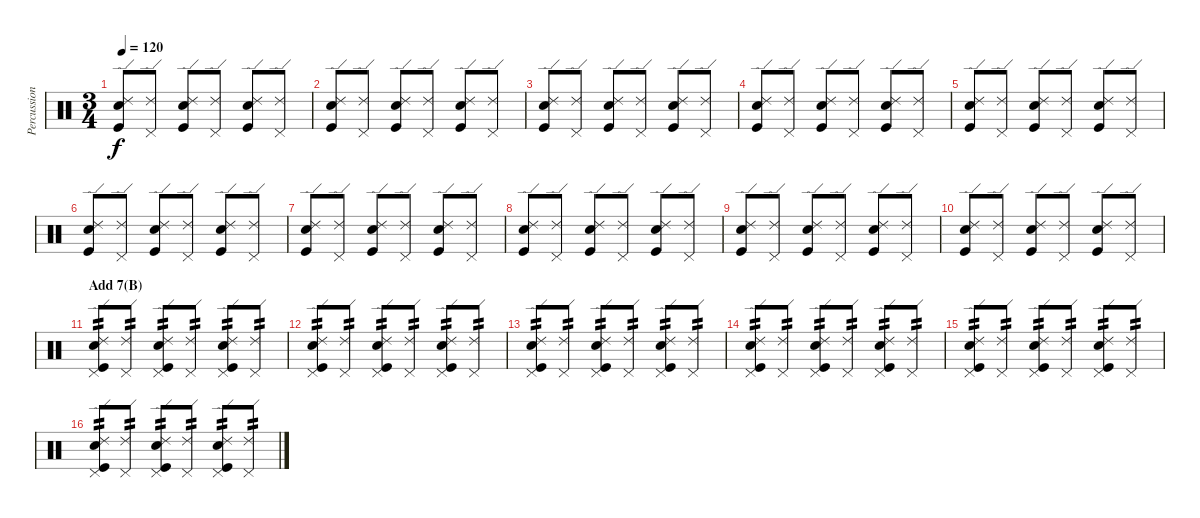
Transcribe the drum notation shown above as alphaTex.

\track ("Percussion" "Percussion") {instrument percussion}
\staff {score}
\articulation defaults
\ts (3 4)
\tempo 120
\clef neutral
\ks c
("Kick (hit)" "Electric Snare (hit)" "Ride (edge) 2").8{dy f} ("Pedal Hi-Hat (hit)" "Ride (edge) 2").8 ("Kick (hit)" "Electric Snare (hit)" "Ride (edge) 2").8 ("Pedal Hi-Hat (hit)" "Ride (edge) 2").8 ("Kick (hit)" "Electric Snare (hit)" "Ride (edge) 2").8 ("Pedal Hi-Hat (hit)" "Ride (edge) 2").8 |
("Kick (hit)" "Electric Snare (hit)" "Ride (edge) 2").8 ("Pedal Hi-Hat (hit)" "Ride (edge) 2").8 ("Kick (hit)" "Electric Snare (hit)" "Ride (edge) 2").8 ("Pedal Hi-Hat (hit)" "Ride (edge) 2").8 ("Kick (hit)" "Electric Snare (hit)" "Ride (edge) 2").8 ("Pedal Hi-Hat (hit)" "Ride (edge) 2").8 |
("Kick (hit)" "Electric Snare (hit)" "Ride (edge) 2").8 ("Pedal Hi-Hat (hit)" "Ride (edge) 2").8 ("Kick (hit)" "Electric Snare (hit)" "Ride (edge) 2").8 ("Pedal Hi-Hat (hit)" "Ride (edge) 2").8 ("Kick (hit)" "Electric Snare (hit)" "Ride (edge) 2").8 ("Pedal Hi-Hat (hit)" "Ride (edge) 2").8 |
("Kick (hit)" "Electric Snare (hit)" "Ride (edge) 2").8 ("Pedal Hi-Hat (hit)" "Ride (edge) 2").8 ("Kick (hit)" "Electric Snare (hit)" "Ride (edge) 2").8 ("Pedal Hi-Hat (hit)" "Ride (edge) 2").8 ("Kick (hit)" "Electric Snare (hit)" "Ride (edge) 2").8 ("Pedal Hi-Hat (hit)" "Ride (edge) 2").8 |
("Kick (hit)" "Electric Snare (hit)" "Ride (edge) 2").8 ("Pedal Hi-Hat (hit)" "Ride (edge) 2").8 ("Kick (hit)" "Electric Snare (hit)" "Ride (edge) 2").8 ("Pedal Hi-Hat (hit)" "Ride (edge) 2").8 ("Kick (hit)" "Electric Snare (hit)" "Ride (edge) 2").8 ("Pedal Hi-Hat (hit)" "Ride (edge) 2").8 |
("Kick (hit)" "Electric Snare (hit)" "Ride (edge) 2").8 ("Pedal Hi-Hat (hit)" "Ride (edge) 2").8 ("Kick (hit)" "Electric Snare (hit)" "Ride (edge) 2").8 ("Pedal Hi-Hat (hit)" "Ride (edge) 2").8 ("Kick (hit)" "Electric Snare (hit)" "Ride (edge) 2").8 ("Pedal Hi-Hat (hit)" "Ride (edge) 2").8 |
("Kick (hit)" "Electric Snare (hit)" "Ride (edge) 2").8 ("Pedal Hi-Hat (hit)" "Ride (edge) 2").8 ("Kick (hit)" "Electric Snare (hit)" "Ride (edge) 2").8 ("Pedal Hi-Hat (hit)" "Ride (edge) 2").8 ("Kick (hit)" "Electric Snare (hit)" "Ride (edge) 2").8 ("Pedal Hi-Hat (hit)" "Ride (edge) 2").8 |
("Kick (hit)" "Electric Snare (hit)" "Ride (edge) 2").8 ("Pedal Hi-Hat (hit)" "Ride (edge) 2").8 ("Kick (hit)" "Electric Snare (hit)" "Ride (edge) 2").8 ("Pedal Hi-Hat (hit)" "Ride (edge) 2").8 ("Kick (hit)" "Electric Snare (hit)" "Ride (edge) 2").8 ("Pedal Hi-Hat (hit)" "Ride (edge) 2").8 |
("Kick (hit)" "Electric Snare (hit)" "Ride (edge) 2").8 ("Pedal Hi-Hat (hit)" "Ride (edge) 2").8 ("Kick (hit)" "Electric Snare (hit)" "Ride (edge) 2").8 ("Pedal Hi-Hat (hit)" "Ride (edge) 2").8 ("Kick (hit)" "Electric Snare (hit)" "Ride (edge) 2").8 ("Pedal Hi-Hat (hit)" "Ride (edge) 2").8 |
("Kick (hit)" "Electric Snare (hit)" "Ride (edge) 2").8 ("Pedal Hi-Hat (hit)" "Ride (edge) 2").8 ("Kick (hit)" "Electric Snare (hit)" "Ride (edge) 2").8 ("Pedal Hi-Hat (hit)" "Ride (edge) 2").8 ("Kick (hit)" "Electric Snare (hit)" "Ride (edge) 2").8 ("Pedal Hi-Hat (hit)" "Ride (edge) 2").8 |
\section ("" "Add 7(B)")
("Pedal Hi-Hat (hit)" "Kick (hit)" "Electric Snare (hit)" "Ride (edge) 2").8{tp 2} ("Pedal Hi-Hat (hit)" "Ride (edge) 2").8{tp 2} ("Pedal Hi-Hat (hit)" "Kick (hit)" "Electric Snare (hit)" "Ride (edge) 2").8{tp 2} ("Pedal Hi-Hat (hit)" "Ride (edge) 2").8{tp 2} ("Pedal Hi-Hat (hit)" "Kick (hit)" "Electric Snare (hit)" "Ride (edge) 2").8{tp 2} ("Pedal Hi-Hat (hit)" "Ride (edge) 2").8{tp 2} |
("Pedal Hi-Hat (hit)" "Kick (hit)" "Electric Snare (hit)" "Ride (edge) 2").8{tp 2} ("Pedal Hi-Hat (hit)" "Ride (edge) 2").8{tp 2} ("Pedal Hi-Hat (hit)" "Kick (hit)" "Electric Snare (hit)" "Ride (edge) 2").8{tp 2} ("Pedal Hi-Hat (hit)" "Ride (edge) 2").8{tp 2} ("Pedal Hi-Hat (hit)" "Kick (hit)" "Electric Snare (hit)" "Ride (edge) 2").8{tp 2} ("Pedal Hi-Hat (hit)" "Ride (edge) 2").8{tp 2} |
("Pedal Hi-Hat (hit)" "Kick (hit)" "Electric Snare (hit)" "Ride (edge) 2").8{tp 2} ("Pedal Hi-Hat (hit)" "Ride (edge) 2").8{tp 2} ("Pedal Hi-Hat (hit)" "Kick (hit)" "Electric Snare (hit)" "Ride (edge) 2").8{tp 2} ("Pedal Hi-Hat (hit)" "Ride (edge) 2").8{tp 2} ("Pedal Hi-Hat (hit)" "Kick (hit)" "Electric Snare (hit)" "Ride (edge) 2").8{tp 2} ("Pedal Hi-Hat (hit)" "Ride (edge) 2").8{tp 2} |
("Pedal Hi-Hat (hit)" "Kick (hit)" "Electric Snare (hit)" "Ride (edge) 2").8{tp 2} ("Pedal Hi-Hat (hit)" "Ride (edge) 2").8{tp 2} ("Pedal Hi-Hat (hit)" "Kick (hit)" "Electric Snare (hit)" "Ride (edge) 2").8{tp 2} ("Pedal Hi-Hat (hit)" "Ride (edge) 2").8{tp 2} ("Pedal Hi-Hat (hit)" "Kick (hit)" "Electric Snare (hit)" "Ride (edge) 2").8{tp 2} ("Pedal Hi-Hat (hit)" "Ride (edge) 2").8{tp 2} |
("Pedal Hi-Hat (hit)" "Kick (hit)" "Electric Snare (hit)" "Ride (edge) 2").8{tp 2} ("Pedal Hi-Hat (hit)" "Ride (edge) 2").8{tp 2} ("Pedal Hi-Hat (hit)" "Kick (hit)" "Electric Snare (hit)" "Ride (edge) 2").8{tp 2} ("Pedal Hi-Hat (hit)" "Ride (edge) 2").8{tp 2} ("Pedal Hi-Hat (hit)" "Kick (hit)" "Electric Snare (hit)" "Ride (edge) 2").8{tp 2} ("Pedal Hi-Hat (hit)" "Ride (edge) 2").8{tp 2} |
("Pedal Hi-Hat (hit)" "Kick (hit)" "Electric Snare (hit)" "Ride (edge) 2").8{tp 2} ("Pedal Hi-Hat (hit)" "Ride (edge) 2").8{tp 2} ("Pedal Hi-Hat (hit)" "Kick (hit)" "Electric Snare (hit)" "Ride (edge) 2").8{tp 2} ("Pedal Hi-Hat (hit)" "Ride (edge) 2").8{tp 2} ("Pedal Hi-Hat (hit)" "Kick (hit)" "Electric Snare (hit)" "Ride (edge) 2").8{tp 2} ("Pedal Hi-Hat (hit)" "Ride (edge) 2").8{tp 2}
